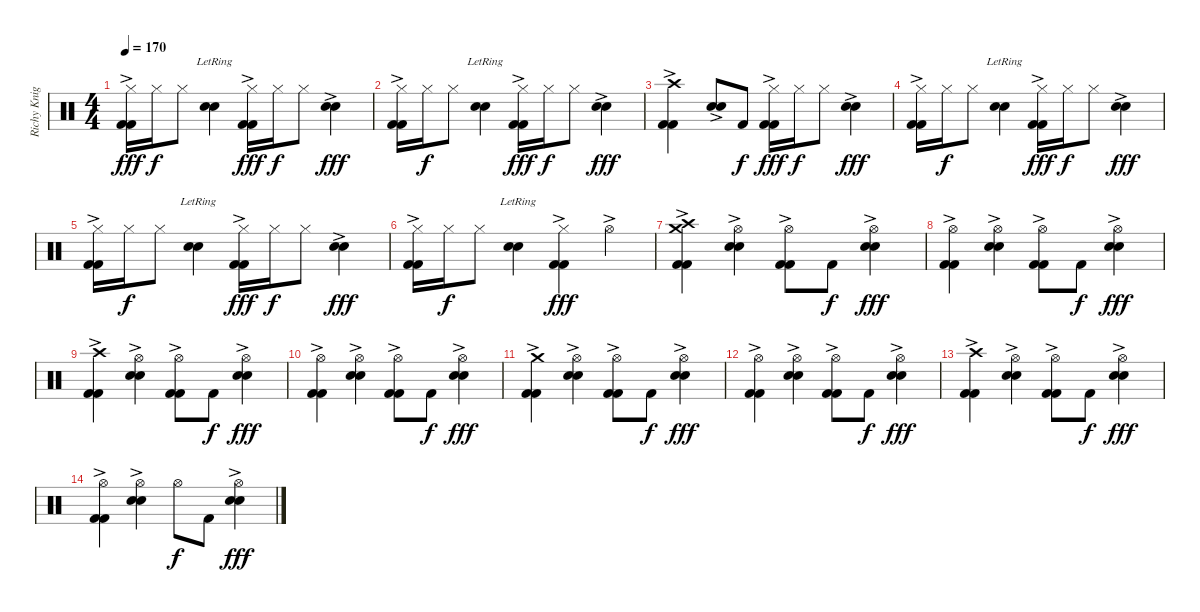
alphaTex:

\track ("Richy Knight (Drums)" "Richy Knig") {instrument percussion}
\staff {score}
\articulation defaults
\ts (4 4)
\tempo 170
\clef neutral
\ks c
("Hi-Hat (closed)" "Kick (hit) 2"{ac} "Kick (hit) 2"{ac}).16{dy fff} "Hi-Hat (closed)".16{dy f} "Hi-Hat (closed)".8 ("Electric Snare (hit)"{lr} "Electric Snare (hit)"{lr}).4 ("Hi-Hat (closed)" "Kick (hit) 2"{ac} "Kick (hit) 2"{ac}).16{dy fff} "Hi-Hat (closed)".16{dy f} "Hi-Hat (closed)".8 ("Electric Snare (hit)"{ac} "Electric Snare (hit)"{ac}).4{dy fff} |
("Hi-Hat (closed)" "Kick (hit) 2"{ac} "Kick (hit) 2"{ac}).16 "Hi-Hat (closed)".16{dy f} "Hi-Hat (closed)".8 ("Electric Snare (hit)"{lr} "Electric Snare (hit)"{lr}).4 ("Hi-Hat (closed)" "Kick (hit) 2"{ac} "Kick (hit) 2"{ac}).16{dy fff} "Hi-Hat (closed)".16{dy f} "Hi-Hat (closed)".8 ("Electric Snare (hit)"{ac} "Electric Snare (hit)"{ac}).4{dy fff} |
("Crash high (hit)"{ac} "Kick (hit) 2"{ac} "Kick (hit) 2"{ac}).4 ("Electric Snare (hit)"{ac} "Electric Snare (hit)"{ac}).8 "Kick (hit) 2".8{dy f} ("Hi-Hat (closed)" "Kick (hit) 2"{ac} "Kick (hit) 2"{ac}).16{dy fff} "Hi-Hat (closed)".16{dy f} "Hi-Hat (closed)".8 ("Electric Snare (hit)"{ac} "Electric Snare (hit)"{ac}).4{dy fff} |
("Hi-Hat (closed)" "Kick (hit) 2"{ac} "Kick (hit) 2"{ac}).16 "Hi-Hat (closed)".16{dy f} "Hi-Hat (closed)".8 ("Electric Snare (hit)"{lr} "Electric Snare (hit)"{lr}).4 ("Hi-Hat (closed)" "Kick (hit) 2"{ac} "Kick (hit) 2"{ac}).16{dy fff} "Hi-Hat (closed)".16{dy f} "Hi-Hat (closed)".8 ("Electric Snare (hit)"{ac} "Electric Snare (hit)"{ac}).4{dy fff} |
("Hi-Hat (closed)" "Kick (hit) 2"{ac} "Kick (hit) 2"{ac}).16 "Hi-Hat (closed)".16{dy f} "Hi-Hat (closed)".8 ("Electric Snare (hit)"{lr} "Electric Snare (hit)"{lr}).4 ("Hi-Hat (closed)" "Kick (hit) 2"{ac} "Kick (hit) 2"{ac}).16{dy fff} "Hi-Hat (closed)".16{dy f} "Hi-Hat (closed)".8 ("Electric Snare (hit)"{ac} "Electric Snare (hit)"{ac}).4{dy fff} |
("Hi-Hat (closed)" "Kick (hit) 2"{ac} "Kick (hit) 2"{ac}).16 "Hi-Hat (closed)".16{dy f} "Hi-Hat (closed)".8 ("Electric Snare (hit)"{lr} "Electric Snare (hit)"{lr}).4 ("Hi-Hat (closed)" "Kick (hit) 2"{ac} "Kick (hit) 2"{ac}).4{dy fff} "Hi-Hat (open)"{ac}.4 |
("Crash high (hit)"{ac} "Crash medium (hit)"{ac} "Kick (hit) 2"{ac} "Kick (hit) 2"{ac}).4 ("Hi-Hat (open)"{ac} "Electric Snare (hit)"{ac} "Electric Snare (hit)"{ac}).4 ("Hi-Hat (open)"{ac} "Kick (hit) 2"{ac} "Kick (hit) 2"{ac}).8 "Kick (hit) 2".8{dy f} ("Hi-Hat (open)"{ac} "Electric Snare (hit)"{ac} "Electric Snare (hit)"{ac}).4{dy fff} |
("Hi-Hat (open)"{ac} "Kick (hit) 2"{ac} "Kick (hit) 2"{ac}).4 ("Hi-Hat (open)"{ac} "Electric Snare (hit)"{ac} "Electric Snare (hit)"{ac}).4 ("Hi-Hat (open)"{ac} "Kick (hit) 2"{ac} "Kick (hit) 2"{ac}).8 "Kick (hit) 2".8{dy f} ("Hi-Hat (open)"{ac} "Electric Snare (hit)"{ac} "Electric Snare (hit)"{ac}).4{dy fff} |
("Crash high (hit)"{ac} "Kick (hit) 2"{ac} "Kick (hit) 2"{ac}).4 ("Hi-Hat (open)"{ac} "Electric Snare (hit)"{ac} "Electric Snare (hit)"{ac}).4 ("Hi-Hat (open)"{ac} "Kick (hit) 2"{ac} "Kick (hit) 2"{ac}).8 "Kick (hit) 2".8{dy f} ("Hi-Hat (open)"{ac} "Electric Snare (hit)"{ac} "Electric Snare (hit)"{ac}).4{dy fff} |
("Hi-Hat (open)"{ac} "Kick (hit) 2"{ac} "Kick (hit) 2"{ac}).4 ("Hi-Hat (open)"{ac} "Electric Snare (hit)"{ac} "Electric Snare (hit)"{ac}).4 ("Hi-Hat (open)"{ac} "Kick (hit) 2"{ac} "Kick (hit) 2"{ac}).8 "Kick (hit) 2".8{dy f} ("Hi-Hat (open)"{ac} "Electric Snare (hit)"{ac} "Electric Snare (hit)"{ac}).4{dy fff} |
("Crash medium (hit)"{ac} "Kick (hit) 2"{ac} "Kick (hit) 2"{ac}).4 ("Hi-Hat (open)"{ac} "Electric Snare (hit)"{ac} "Electric Snare (hit)"{ac}).4 ("Hi-Hat (open)"{ac} "Kick (hit) 2"{ac} "Kick (hit) 2"{ac}).8 "Kick (hit) 2".8{dy f} ("Hi-Hat (open)"{ac} "Electric Snare (hit)"{ac} "Electric Snare (hit)"{ac}).4{dy fff} |
("Hi-Hat (open)"{ac} "Kick (hit) 2"{ac} "Kick (hit) 2"{ac}).4 ("Hi-Hat (open)"{ac} "Electric Snare (hit)"{ac} "Electric Snare (hit)"{ac}).4 ("Hi-Hat (open)"{ac} "Kick (hit) 2"{ac} "Kick (hit) 2"{ac}).8 "Kick (hit) 2".8{dy f} ("Hi-Hat (open)"{ac} "Electric Snare (hit)"{ac} "Electric Snare (hit)"{ac}).4{dy fff} |
("Crash high (hit)"{ac} "Kick (hit) 2"{ac} "Kick (hit) 2"{ac}).4 ("Hi-Hat (open)"{ac} "Electric Snare (hit)"{ac} "Electric Snare (hit)"{ac}).4 ("Hi-Hat (open)"{ac} "Kick (hit) 2"{ac} "Kick (hit) 2"{ac}).8 "Kick (hit) 2".8{dy f} ("Hi-Hat (open)"{ac} "Electric Snare (hit)"{ac} "Electric Snare (hit)"{ac}).4{dy fff} |
("Hi-Hat (open)"{ac} "Kick (hit) 2"{ac} "Kick (hit) 2"{ac}).4 ("Hi-Hat (open)"{ac} "Electric Snare (hit)"{ac} "Electric Snare (hit)"{ac}).4 "Hi-Hat (open)".8{dy f} "Kick (hit) 2".8 ("Hi-Hat (open)"{ac} "Electric Snare (hit)"{ac} "Electric Snare (hit)"{ac}).4{dy fff}
